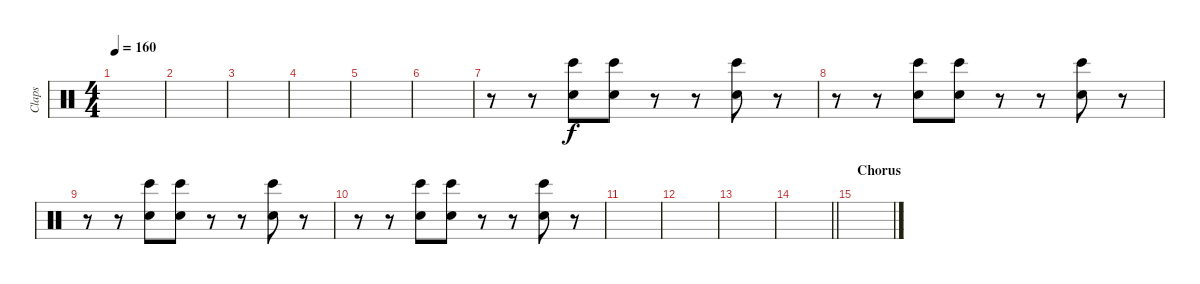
\track ("Claps" "Claps") {instrument percussion}
\staff {score}
\articulation defaults
\ts (4 4)
\tempo 160
\clef neutral
\ks c
|
|
|
|
|
|
r.8 r.8 ("Hand Clap (hit)" "Bongo High (hit)").8 ("Hand Clap (hit)" "Bongo High (hit)").8 r.8 r.8 ("Hand Clap (hit)" "Bongo High (hit)").8 r.8 |
r.8 r.8 ("Hand Clap (hit)" "Bongo High (hit)").8 ("Hand Clap (hit)" "Bongo High (hit)").8 r.8 r.8 ("Hand Clap (hit)" "Bongo High (hit)").8 r.8 |
r.8 r.8 ("Hand Clap (hit)" "Bongo High (hit)").8 ("Hand Clap (hit)" "Bongo High (hit)").8 r.8 r.8 ("Hand Clap (hit)" "Bongo High (hit)").8 r.8 |
r.8 r.8 ("Hand Clap (hit)" "Bongo High (hit)").8 ("Hand Clap (hit)" "Bongo High (hit)").8 r.8 r.8 ("Hand Clap (hit)" "Bongo High (hit)").8 r.8 |
|
|
|
\barLineRight lightlight
|
\section ("" "Chorus")
